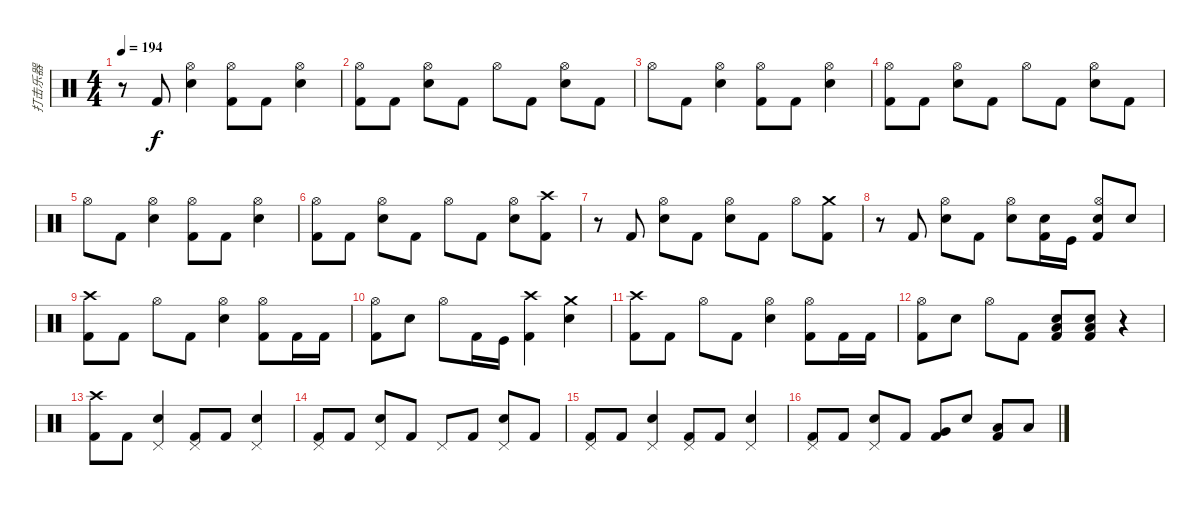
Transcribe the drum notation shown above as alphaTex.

\track ("打击乐器" "打击乐器") {instrument percussion}
\staff {score}
\articulation defaults
\ts (4 4)
\tempo 194
\clef neutral
\ks c
r.8{dy f} "Kick (hit) 2".8 ("Hi-Hat (open)" "Electric Snare (hit)").4 ("Hi-Hat (open)" "Kick (hit) 2").8 "Kick (hit) 2".8 ("Hi-Hat (open)" "Electric Snare (hit)").4 |
("Hi-Hat (open)" "Kick (hit) 2").8 "Kick (hit) 2".8 ("Hi-Hat (open)" "Electric Snare (hit)").8 "Kick (hit) 2".8 "Hi-Hat (open)".8 "Kick (hit) 2".8 ("Hi-Hat (open)" "Electric Snare (hit)").8 "Kick (hit) 2".8 |
"Hi-Hat (open)".8 "Kick (hit) 2".8 ("Hi-Hat (open)" "Electric Snare (hit)").4 ("Hi-Hat (open)" "Kick (hit) 2").8 "Kick (hit) 2".8 ("Hi-Hat (open)" "Electric Snare (hit)").4 |
("Hi-Hat (open)" "Kick (hit) 2").8 "Kick (hit) 2".8 ("Hi-Hat (open)" "Electric Snare (hit)").8 "Kick (hit) 2".8 "Hi-Hat (open)".8 "Kick (hit) 2".8 ("Hi-Hat (open)" "Electric Snare (hit)").8 "Kick (hit) 2".8 |
"Hi-Hat (open)".8 "Kick (hit) 2".8 ("Hi-Hat (open)" "Electric Snare (hit)").4 ("Hi-Hat (open)" "Kick (hit) 2").8 "Kick (hit) 2".8 ("Hi-Hat (open)" "Electric Snare (hit)").4 |
("Hi-Hat (open)" "Kick (hit) 2").8 "Kick (hit) 2".8 ("Hi-Hat (open)" "Electric Snare (hit)").8 "Kick (hit) 2".8 "Hi-Hat (open)".8 "Kick (hit) 2".8 ("Hi-Hat (open)" "Electric Snare (hit)").8 ("Crash high (hit)" "Kick (hit) 2").8 |
r.8 "Kick (hit) 2".8 ("Hi-Hat (open)" "Electric Snare (hit)").8 "Kick (hit) 2".8 ("Hi-Hat (open)" "Electric Snare (hit)").8 "Kick (hit) 2".8 "Hi-Hat (open)".8 ("Crash medium (hit)" "Kick (hit) 2").8 |
r.8 "Kick (hit) 2".8 ("Hi-Hat (open)" "Electric Snare (hit)").8 "Kick (hit) 2".8 ("Hi-Hat (open)" "Electric Snare (hit)").8 ("Electric Snare (hit)" "Kick (hit) 2").16 "Kick (hit)".16 ("Hi-Hat (open)" "Electric Snare (hit)" "Kick (hit) 2").8 "Electric Snare (hit)".8 |
("Crash high (hit)" "Kick (hit) 2").8 "Kick (hit) 2".8 "Hi-Hat (open)".8 "Kick (hit) 2".8 ("Hi-Hat (open)" "Electric Snare (hit)").4 ("Hi-Hat (open)" "Kick (hit) 2").8 "Kick (hit) 2".16 "Kick (hit) 2".16 |
("Hi-Hat (open)" "Kick (hit) 2").8 "Electric Snare (hit)".8 "Hi-Hat (open)".8 "Kick (hit) 2".16 "Kick (hit)".16 ("Crash high (hit)" "Kick (hit) 2").4 ("Crash medium (hit)" "Electric Snare (hit)").4 |
("Crash high (hit)" "Kick (hit) 2").8 "Kick (hit) 2".8 "Hi-Hat (open)".8 "Kick (hit) 2".8 ("Hi-Hat (open)" "Electric Snare (hit)").4 ("Hi-Hat (open)" "Kick (hit) 2").8 "Kick (hit) 2".16 "Kick (hit) 2".16 |
("Hi-Hat (open)" "Kick (hit) 2").8 "Electric Snare (hit)".8 "Hi-Hat (open)".8 "Kick (hit) 2".8 ("Electric Snare (hit)" "Low Floor Tom (hit)" "Kick (hit) 2").8 ("Electric Snare (hit)" "Low Floor Tom (hit)" "Kick (hit) 2").8 r.4 |
("Crash high (hit)" "Kick (hit) 2").8 "Kick (hit) 2".8 ("Pedal Hi-Hat (hit)" "Electric Snare (hit)").4 ("Pedal Hi-Hat (hit)" "Kick (hit) 2").8 "Kick (hit) 2".8 ("Pedal Hi-Hat (hit)" "Electric Snare (hit)").4 |
("Pedal Hi-Hat (hit)" "Kick (hit) 2").8 "Kick (hit) 2".8 ("Pedal Hi-Hat (hit)" "Electric Snare (hit)").8 "Kick (hit) 2".8 "Pedal Hi-Hat (hit)".8 "Kick (hit) 2".8 ("Pedal Hi-Hat (hit)" "Electric Snare (hit)").8 "Kick (hit) 2".8 |
("Pedal Hi-Hat (hit)" "Kick (hit) 2").8 "Kick (hit) 2".8 ("Pedal Hi-Hat (hit)" "Electric Snare (hit)").4 ("Pedal Hi-Hat (hit)" "Kick (hit) 2").8 "Kick (hit) 2".8 ("Pedal Hi-Hat (hit)" "Electric Snare (hit)").4 |
("Pedal Hi-Hat (hit)" "Kick (hit) 2").8 "Kick (hit) 2".8 ("Pedal Hi-Hat (hit)" "Electric Snare (hit)").8 "Kick (hit) 2".8 ("Very Low Tom (hit)" "Kick (hit) 2").8 "Electric Snare (hit)".8 ("Low Floor Tom (hit)" "Kick (hit) 2").8 "Low Tom (hit)".8
